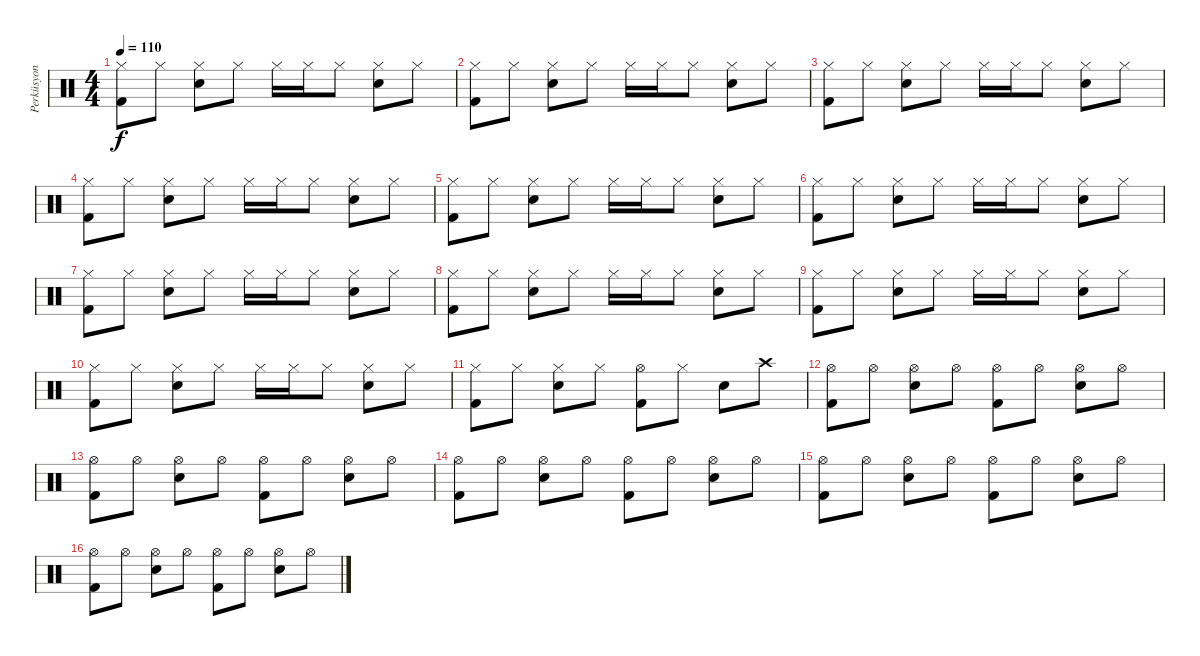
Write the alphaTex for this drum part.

\track ("Perküsyon" "Perküsyon") {instrument percussion}
\staff {score}
\articulation defaults
\ts (4 4)
\tempo 110
\clef neutral
\ks c
("Hi-Hat (closed)" "Kick (hit) 2").8{dy f} "Hi-Hat (closed)".8 ("Hi-Hat (closed)" "Snare (hit) 2").8 "Hi-Hat (closed)".8 "Hi-Hat (closed)".16 "Hi-Hat (closed)".16 "Hi-Hat (closed)".8 ("Hi-Hat (closed)" "Snare (hit) 2").8 "Hi-Hat (closed)".8 |
("Hi-Hat (closed)" "Kick (hit) 2").8 "Hi-Hat (closed)".8 ("Hi-Hat (closed)" "Snare (hit) 2").8 "Hi-Hat (closed)".8 "Hi-Hat (closed)".16 "Hi-Hat (closed)".16 "Hi-Hat (closed)".8 ("Hi-Hat (closed)" "Snare (hit) 2").8 "Hi-Hat (closed)".8 |
("Hi-Hat (closed)" "Kick (hit) 2").8 "Hi-Hat (closed)".8 ("Hi-Hat (closed)" "Snare (hit) 2").8 "Hi-Hat (closed)".8 "Hi-Hat (closed)".16 "Hi-Hat (closed)".16 "Hi-Hat (closed)".8 ("Hi-Hat (closed)" "Snare (hit) 2").8 "Hi-Hat (closed)".8 |
("Hi-Hat (closed)" "Kick (hit) 2").8 "Hi-Hat (closed)".8 ("Hi-Hat (closed)" "Snare (hit) 2").8 "Hi-Hat (closed)".8 "Hi-Hat (closed)".16 "Hi-Hat (closed)".16 "Hi-Hat (closed)".8 ("Hi-Hat (closed)" "Snare (hit) 2").8 "Hi-Hat (closed)".8 |
("Hi-Hat (closed)" "Kick (hit) 2").8 "Hi-Hat (closed)".8 ("Hi-Hat (closed)" "Snare (hit) 2").8 "Hi-Hat (closed)".8 "Hi-Hat (closed)".16 "Hi-Hat (closed)".16 "Hi-Hat (closed)".8 ("Hi-Hat (closed)" "Snare (hit) 2").8 "Hi-Hat (closed)".8 |
("Hi-Hat (closed)" "Kick (hit) 2").8 "Hi-Hat (closed)".8 ("Hi-Hat (closed)" "Snare (hit) 2").8 "Hi-Hat (closed)".8 "Hi-Hat (closed)".16 "Hi-Hat (closed)".16 "Hi-Hat (closed)".8 ("Hi-Hat (closed)" "Snare (hit) 2").8 "Hi-Hat (closed)".8 |
("Hi-Hat (closed)" "Kick (hit) 2").8 "Hi-Hat (closed)".8 ("Hi-Hat (closed)" "Snare (hit) 2").8 "Hi-Hat (closed)".8 "Hi-Hat (closed)".16 "Hi-Hat (closed)".16 "Hi-Hat (closed)".8 ("Hi-Hat (closed)" "Snare (hit) 2").8 "Hi-Hat (closed)".8 |
("Hi-Hat (closed)" "Kick (hit) 2").8 "Hi-Hat (closed)".8 ("Hi-Hat (closed)" "Snare (hit) 2").8 "Hi-Hat (closed)".8 "Hi-Hat (closed)".16 "Hi-Hat (closed)".16 "Hi-Hat (closed)".8 ("Hi-Hat (closed)" "Snare (hit) 2").8 "Hi-Hat (closed)".8 |
("Hi-Hat (closed)" "Kick (hit) 2").8 "Hi-Hat (closed)".8 ("Hi-Hat (closed)" "Snare (hit) 2").8 "Hi-Hat (closed)".8 "Hi-Hat (closed)".16 "Hi-Hat (closed)".16 "Hi-Hat (closed)".8 ("Hi-Hat (closed)" "Snare (hit) 2").8 "Hi-Hat (closed)".8 |
("Hi-Hat (closed)" "Kick (hit) 2").8 "Hi-Hat (closed)".8 ("Hi-Hat (closed)" "Snare (hit) 2").8 "Hi-Hat (closed)".8 "Hi-Hat (closed)".16 "Hi-Hat (closed)".16 "Hi-Hat (closed)".8 ("Hi-Hat (closed)" "Snare (hit) 2").8 "Hi-Hat (closed)".8 |
("Hi-Hat (closed)" "Kick (hit) 2").8 "Hi-Hat (closed)".8 ("Hi-Hat (closed)" "Snare (hit) 2").8 "Hi-Hat (closed)".8 ("Hi-Hat (open)" "Kick (hit) 2").8 "Hi-Hat (closed)".8 "Snare (hit) 2".8 "Crash high (hit)".8 |
("Hi-Hat (open)" "Kick (hit) 2").8 "Hi-Hat (open)".8 ("Hi-Hat (open)" "Snare (hit) 2").8 "Hi-Hat (open)".8 ("Hi-Hat (open)" "Kick (hit) 2").8 "Hi-Hat (open)".8 ("Hi-Hat (open)" "Snare (hit) 2").8 "Hi-Hat (open)".8 |
("Hi-Hat (open)" "Kick (hit) 2").8 "Hi-Hat (open)".8 ("Hi-Hat (open)" "Snare (hit) 2").8 "Hi-Hat (open)".8 ("Hi-Hat (open)" "Kick (hit) 2").8 "Hi-Hat (open)".8 ("Hi-Hat (open)" "Snare (hit) 2").8 "Hi-Hat (open)".8 |
("Hi-Hat (open)" "Kick (hit) 2").8 "Hi-Hat (open)".8 ("Hi-Hat (open)" "Snare (hit) 2").8 "Hi-Hat (open)".8 ("Hi-Hat (open)" "Kick (hit) 2").8 "Hi-Hat (open)".8 ("Hi-Hat (open)" "Snare (hit) 2").8 "Hi-Hat (open)".8 |
("Hi-Hat (open)" "Kick (hit) 2").8 "Hi-Hat (open)".8 ("Hi-Hat (open)" "Snare (hit) 2").8 "Hi-Hat (open)".8 ("Hi-Hat (open)" "Kick (hit) 2").8 "Hi-Hat (open)".8 ("Hi-Hat (open)" "Snare (hit) 2").8 "Hi-Hat (open)".8 |
("Hi-Hat (open)" "Kick (hit) 2").8 "Hi-Hat (open)".8 ("Hi-Hat (open)" "Snare (hit) 2").8 "Hi-Hat (open)".8 ("Hi-Hat (open)" "Kick (hit) 2").8 "Hi-Hat (open)".8 ("Hi-Hat (open)" "Snare (hit) 2").8 "Hi-Hat (open)".8
